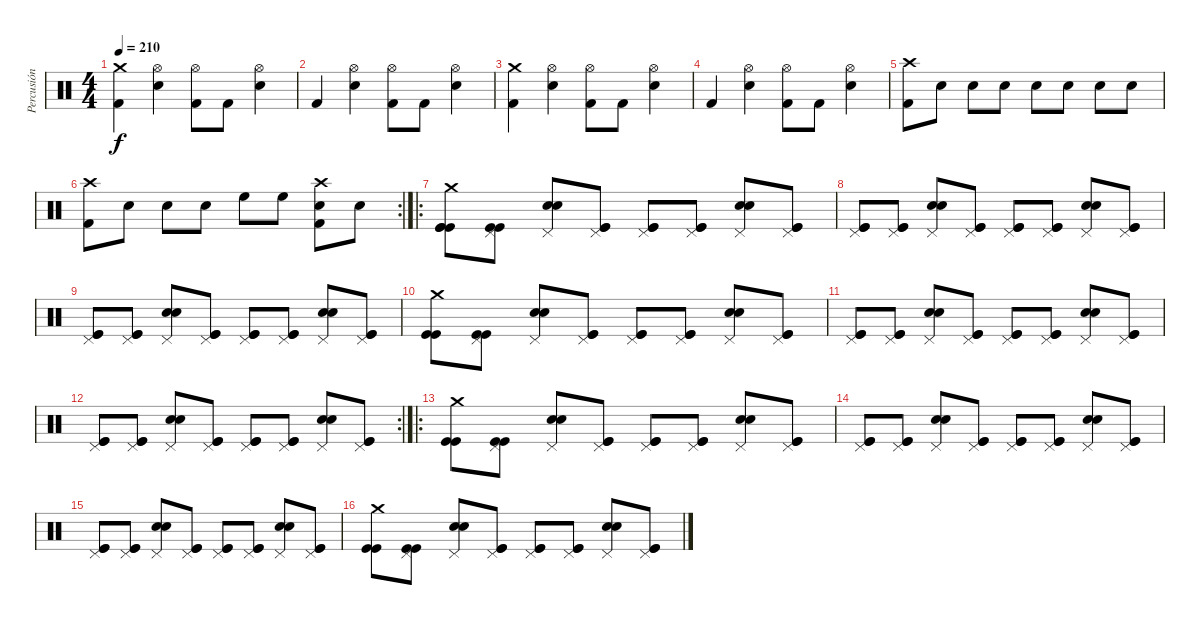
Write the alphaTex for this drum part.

\track ("Percusión" "Percusión") {instrument percussion}
\staff {score}
\articulation defaults
\ts (4 4)
\tempo 210
\clef neutral
\ks c
("Kick (hit) 2" "Crash medium (hit)").4{dy f} ("Snare (hit) 2" "Hi-Hat (open)").4 ("Kick (hit) 2" "Hi-Hat (open)").8 "Kick (hit) 2".8 ("Snare (hit) 2" "Hi-Hat (open)").4 |
"Kick (hit) 2".4 ("Snare (hit) 2" "Hi-Hat (open)").4 ("Kick (hit) 2" "Hi-Hat (open)").8 "Kick (hit) 2".8 ("Snare (hit) 2" "Hi-Hat (open)").4 |
("Kick (hit) 2" "Crash medium (hit)").4 ("Snare (hit) 2" "Hi-Hat (open)").4 ("Kick (hit) 2" "Hi-Hat (open)").8 "Kick (hit) 2".8 ("Snare (hit) 2" "Hi-Hat (open)").4 |
"Kick (hit) 2".4 ("Snare (hit) 2" "Hi-Hat (open)").4 ("Kick (hit) 2" "Hi-Hat (open)").8 "Kick (hit) 2".8 ("Snare (hit) 2" "Hi-Hat (open)").4 |
("Kick (hit) 2" "Crash high (hit)").8 "Snare (hit) 2".8 "Snare (hit) 2".8 "Snare (hit) 2".8 "Snare (hit) 2".8 "Snare (hit) 2".8 "Snare (hit) 2".8 "Snare (hit) 2".8 |
\rc 2
("Kick (hit) 2" "Crash high (hit)").8 "Snare (hit) 2".8 "Snare (hit) 2".8 "Snare (hit) 2".8 "High Floor Tom (hit)".8 "High Floor Tom (hit)".8 ("Kick (hit) 2" "Snare (hit) 2" "Crash high (hit)").8 "Snare (hit) 2".8 |
\ro
("Crash medium (hit)" "Kick (hit)" "Kick (hit)" "Kick (hit)").8 ("Pedal Hi-Hat (hit)" "Kick (hit)" "Kick (hit)").8 ("Pedal Hi-Hat (hit)" "Snare (hit) 2" "Snare (hit) 2").8 ("Pedal Hi-Hat (hit)" "Kick (hit)" "Kick (hit)").8 ("Pedal Hi-Hat (hit)" "Kick (hit)" "Kick (hit)").8 ("Pedal Hi-Hat (hit)" "Kick (hit)" "Kick (hit)").8 ("Pedal Hi-Hat (hit)" "Snare (hit) 2" "Snare (hit) 2").8 ("Pedal Hi-Hat (hit)" "Kick (hit)" "Kick (hit)").8 |
("Pedal Hi-Hat (hit)" "Kick (hit)" "Kick (hit)").8 ("Pedal Hi-Hat (hit)" "Kick (hit)" "Kick (hit)").8 ("Pedal Hi-Hat (hit)" "Snare (hit) 2" "Snare (hit) 2").8 ("Pedal Hi-Hat (hit)" "Kick (hit)" "Kick (hit)").8 ("Pedal Hi-Hat (hit)" "Kick (hit)" "Kick (hit)").8 ("Pedal Hi-Hat (hit)" "Kick (hit)" "Kick (hit)").8 ("Pedal Hi-Hat (hit)" "Snare (hit) 2" "Snare (hit) 2").8 ("Pedal Hi-Hat (hit)" "Kick (hit)" "Kick (hit)").8 |
("Pedal Hi-Hat (hit)" "Kick (hit)" "Kick (hit)").8 ("Pedal Hi-Hat (hit)" "Kick (hit)" "Kick (hit)").8 ("Pedal Hi-Hat (hit)" "Snare (hit) 2" "Snare (hit) 2").8 ("Pedal Hi-Hat (hit)" "Kick (hit)" "Kick (hit)").8 ("Pedal Hi-Hat (hit)" "Kick (hit)" "Kick (hit)").8 ("Pedal Hi-Hat (hit)" "Kick (hit)" "Kick (hit)").8 ("Pedal Hi-Hat (hit)" "Snare (hit) 2" "Snare (hit) 2").8 ("Pedal Hi-Hat (hit)" "Kick (hit)" "Kick (hit)").8 |
("Crash medium (hit)" "Kick (hit)" "Kick (hit)").8 ("Pedal Hi-Hat (hit)" "Kick (hit)" "Kick (hit)").8 ("Pedal Hi-Hat (hit)" "Snare (hit) 2" "Snare (hit) 2").8 ("Pedal Hi-Hat (hit)" "Kick (hit)" "Kick (hit)").8 ("Pedal Hi-Hat (hit)" "Kick (hit)" "Kick (hit)").8 ("Pedal Hi-Hat (hit)" "Kick (hit)" "Kick (hit)").8 ("Pedal Hi-Hat (hit)" "Snare (hit) 2" "Snare (hit) 2").8 ("Pedal Hi-Hat (hit)" "Kick (hit)" "Kick (hit)").8 |
("Pedal Hi-Hat (hit)" "Kick (hit)" "Kick (hit)").8 ("Pedal Hi-Hat (hit)" "Kick (hit)" "Kick (hit)").8 ("Pedal Hi-Hat (hit)" "Snare (hit) 2" "Snare (hit) 2").8 ("Pedal Hi-Hat (hit)" "Kick (hit)" "Kick (hit)").8 ("Pedal Hi-Hat (hit)" "Kick (hit)" "Kick (hit)").8 ("Pedal Hi-Hat (hit)" "Kick (hit)" "Kick (hit)").8 ("Pedal Hi-Hat (hit)" "Snare (hit) 2" "Snare (hit) 2").8 ("Pedal Hi-Hat (hit)" "Kick (hit)" "Kick (hit)").8 |
\rc 2
("Pedal Hi-Hat (hit)" "Kick (hit)" "Kick (hit)").8 ("Pedal Hi-Hat (hit)" "Kick (hit)" "Kick (hit)").8 ("Pedal Hi-Hat (hit)" "Snare (hit) 2" "Snare (hit) 2").8 ("Pedal Hi-Hat (hit)" "Kick (hit)" "Kick (hit)").8 ("Pedal Hi-Hat (hit)" "Kick (hit)" "Kick (hit)").8 ("Pedal Hi-Hat (hit)" "Kick (hit)" "Kick (hit)").8 ("Pedal Hi-Hat (hit)" "Snare (hit) 2" "Snare (hit) 2").8 ("Pedal Hi-Hat (hit)" "Kick (hit)" "Kick (hit)").8 |
\ro
("Crash medium (hit)" "Kick (hit)" "Kick (hit)").8 ("Pedal Hi-Hat (hit)" "Kick (hit)" "Kick (hit)").8 ("Pedal Hi-Hat (hit)" "Snare (hit) 2" "Snare (hit) 2").8 ("Pedal Hi-Hat (hit)" "Kick (hit)" "Kick (hit)").8 ("Pedal Hi-Hat (hit)" "Kick (hit)" "Kick (hit)").8 ("Pedal Hi-Hat (hit)" "Kick (hit)" "Kick (hit)").8 ("Pedal Hi-Hat (hit)" "Snare (hit) 2" "Snare (hit) 2").8 ("Pedal Hi-Hat (hit)" "Kick (hit)" "Kick (hit)").8 |
("Pedal Hi-Hat (hit)" "Kick (hit)" "Kick (hit)").8 ("Pedal Hi-Hat (hit)" "Kick (hit)" "Kick (hit)").8 ("Pedal Hi-Hat (hit)" "Snare (hit) 2" "Snare (hit) 2").8 ("Pedal Hi-Hat (hit)" "Kick (hit)" "Kick (hit)").8 ("Pedal Hi-Hat (hit)" "Kick (hit)" "Kick (hit)").8 ("Pedal Hi-Hat (hit)" "Kick (hit)" "Kick (hit)").8 ("Pedal Hi-Hat (hit)" "Snare (hit) 2" "Snare (hit) 2").8 ("Pedal Hi-Hat (hit)" "Kick (hit)" "Kick (hit)").8 |
("Pedal Hi-Hat (hit)" "Kick (hit)" "Kick (hit)").8 ("Pedal Hi-Hat (hit)" "Kick (hit)" "Kick (hit)").8 ("Pedal Hi-Hat (hit)" "Snare (hit) 2" "Snare (hit) 2").8 ("Pedal Hi-Hat (hit)" "Kick (hit)" "Kick (hit)").8 ("Pedal Hi-Hat (hit)" "Kick (hit)" "Kick (hit)").8 ("Pedal Hi-Hat (hit)" "Kick (hit)" "Kick (hit)").8 ("Pedal Hi-Hat (hit)" "Snare (hit) 2" "Snare (hit) 2").8 ("Pedal Hi-Hat (hit)" "Kick (hit)" "Kick (hit)").8 |
("Crash medium (hit)" "Kick (hit)" "Kick (hit)").8 ("Pedal Hi-Hat (hit)" "Kick (hit)" "Kick (hit)").8 ("Pedal Hi-Hat (hit)" "Snare (hit) 2" "Snare (hit) 2").8 ("Pedal Hi-Hat (hit)" "Kick (hit)" "Kick (hit)").8 ("Pedal Hi-Hat (hit)" "Kick (hit)" "Kick (hit)").8 ("Pedal Hi-Hat (hit)" "Kick (hit)" "Kick (hit)").8 ("Pedal Hi-Hat (hit)" "Snare (hit) 2" "Snare (hit) 2").8 ("Pedal Hi-Hat (hit)" "Kick (hit)" "Kick (hit)").8
